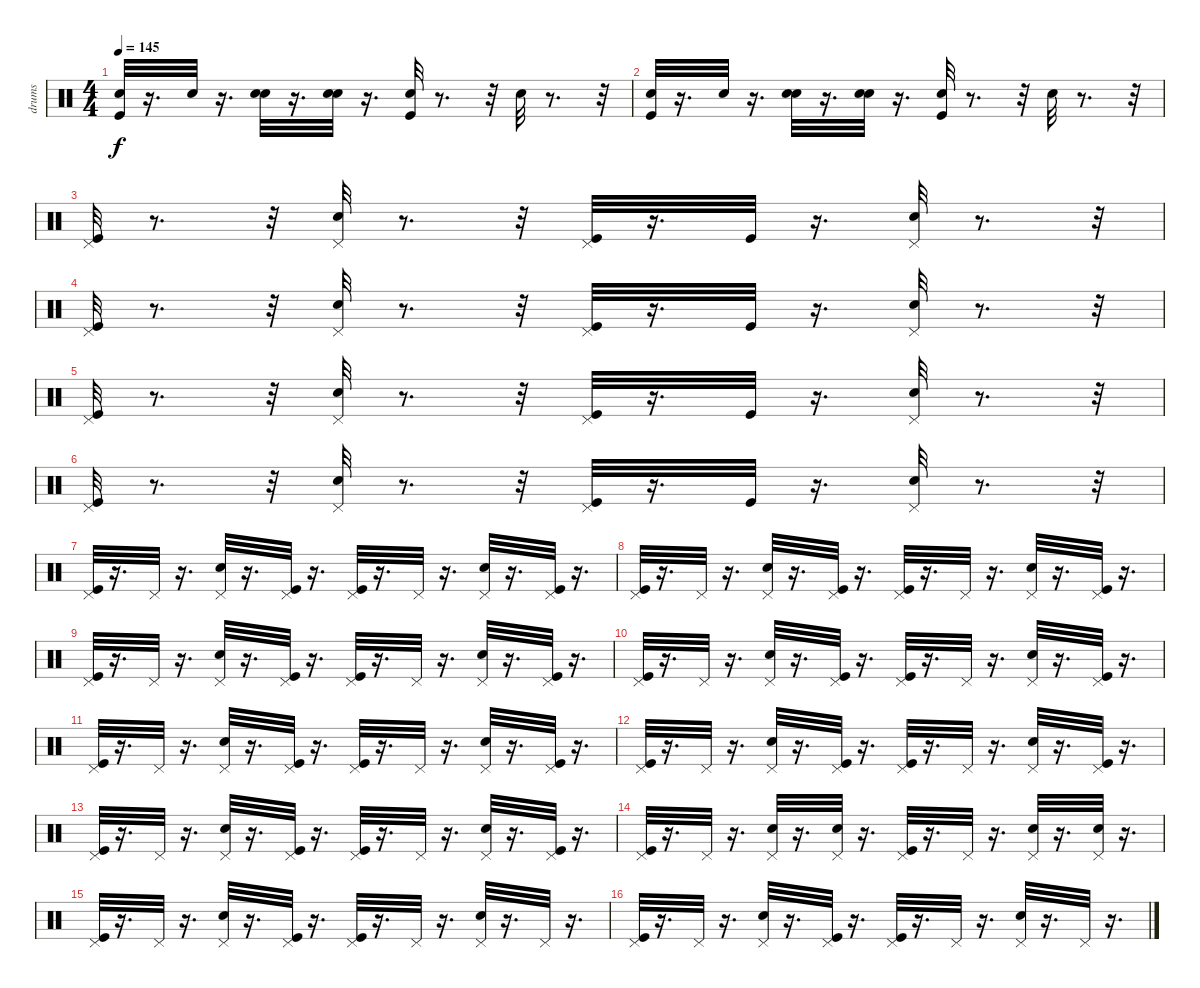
\track ("drums" "drums") {instrument percussion}
\staff {score}
\articulation defaults
\ts (4 4)
\tempo 145
\clef neutral
\ks c
("Hand Clap (hit)" "Kick (hit)").32{dy f} r.16{d} "Hand Clap (hit)".32 r.16{d} ("Hand Clap (hit)" "Electric Snare (hit)").32 r.16{d} ("Hand Clap (hit)" "Electric Snare (hit)").32 r.16{d} ("Hand Clap (hit)" "Kick (hit)").32 r.8{d} r.32 "Electric Snare (hit)".32 r.8{d} r.32 |
("Hand Clap (hit)" "Kick (hit)").32 r.16{d} "Hand Clap (hit)".32 r.16{d} ("Hand Clap (hit)" "Electric Snare (hit)").32 r.16{d} ("Hand Clap (hit)" "Electric Snare (hit)").32 r.16{d} ("Hand Clap (hit)" "Kick (hit)").32 r.8{d} r.32 "Electric Snare (hit)".32 r.8{d} r.32 |
("Pedal Hi-Hat (hit)" "Kick (hit)").32 r.8{d} r.32 ("Pedal Hi-Hat (hit)" "Electric Snare (hit)").32 r.8{d} r.32 ("Pedal Hi-Hat (hit)" "Kick (hit)").32 r.16{d} "Kick (hit)".32 r.16{d} ("Pedal Hi-Hat (hit)" "Electric Snare (hit)").32 r.8{d} r.32 |
("Pedal Hi-Hat (hit)" "Kick (hit)").32 r.8{d} r.32 ("Pedal Hi-Hat (hit)" "Electric Snare (hit)").32 r.8{d} r.32 ("Pedal Hi-Hat (hit)" "Kick (hit)").32 r.16{d} "Kick (hit)".32 r.16{d} ("Pedal Hi-Hat (hit)" "Electric Snare (hit)").32 r.8{d} r.32 |
("Pedal Hi-Hat (hit)" "Kick (hit)").32 r.8{d} r.32 ("Pedal Hi-Hat (hit)" "Electric Snare (hit)").32 r.8{d} r.32 ("Pedal Hi-Hat (hit)" "Kick (hit)").32 r.16{d} "Kick (hit)".32 r.16{d} ("Pedal Hi-Hat (hit)" "Electric Snare (hit)").32 r.8{d} r.32 |
("Pedal Hi-Hat (hit)" "Kick (hit)").32 r.8{d} r.32 ("Pedal Hi-Hat (hit)" "Electric Snare (hit)").32 r.8{d} r.32 ("Pedal Hi-Hat (hit)" "Kick (hit)").32 r.16{d} "Kick (hit)".32 r.16{d} ("Pedal Hi-Hat (hit)" "Electric Snare (hit)").32 r.8{d} r.32 |
("Kick (hit)" "Pedal Hi-Hat (hit)").32 r.16{d} "Pedal Hi-Hat (hit)".32 r.16{d} ("Electric Snare (hit)" "Pedal Hi-Hat (hit)").32 r.16{d} ("Pedal Hi-Hat (hit)" "Kick (hit)").32 r.16{d} ("Pedal Hi-Hat (hit)" "Kick (hit)").32 r.16{d} "Pedal Hi-Hat (hit)".32 r.16{d} ("Pedal Hi-Hat (hit)" "Electric Snare (hit)").32 r.16{d} ("Pedal Hi-Hat (hit)" "Kick (hit)").32 r.16{d} |
("Pedal Hi-Hat (hit)" "Kick (hit)").32 r.16{d} "Pedal Hi-Hat (hit)".32 r.16{d} ("Pedal Hi-Hat (hit)" "Electric Snare (hit)").32 r.16{d} ("Pedal Hi-Hat (hit)" "Kick (hit)").32 r.16{d} ("Pedal Hi-Hat (hit)" "Kick (hit)").32 r.16{d} "Pedal Hi-Hat (hit)".32 r.16{d} ("Pedal Hi-Hat (hit)" "Electric Snare (hit)").32 r.16{d} ("Pedal Hi-Hat (hit)" "Kick (hit)").32 r.16{d} |
("Pedal Hi-Hat (hit)" "Kick (hit)").32 r.16{d} "Pedal Hi-Hat (hit)".32 r.16{d} ("Pedal Hi-Hat (hit)" "Electric Snare (hit)").32 r.16{d} ("Pedal Hi-Hat (hit)" "Kick (hit)").32 r.16{d} ("Pedal Hi-Hat (hit)" "Kick (hit)").32 r.16{d} "Pedal Hi-Hat (hit)".32 r.16{d} ("Pedal Hi-Hat (hit)" "Electric Snare (hit)").32 r.16{d} ("Pedal Hi-Hat (hit)" "Kick (hit)").32 r.16{d} |
("Pedal Hi-Hat (hit)" "Kick (hit)").32 r.16{d} "Pedal Hi-Hat (hit)".32 r.16{d} ("Pedal Hi-Hat (hit)" "Electric Snare (hit)").32 r.16{d} ("Pedal Hi-Hat (hit)" "Kick (hit)").32 r.16{d} ("Pedal Hi-Hat (hit)" "Kick (hit)").32 r.16{d} "Pedal Hi-Hat (hit)".32 r.16{d} ("Pedal Hi-Hat (hit)" "Electric Snare (hit)").32 r.16{d} ("Pedal Hi-Hat (hit)" "Kick (hit)").32 r.16{d} |
("Pedal Hi-Hat (hit)" "Kick (hit)").32 r.16{d} "Pedal Hi-Hat (hit)".32 r.16{d} ("Pedal Hi-Hat (hit)" "Electric Snare (hit)").32 r.16{d} ("Pedal Hi-Hat (hit)" "Kick (hit)").32 r.16{d} ("Pedal Hi-Hat (hit)" "Kick (hit)").32 r.16{d} "Pedal Hi-Hat (hit)".32 r.16{d} ("Pedal Hi-Hat (hit)" "Electric Snare (hit)").32 r.16{d} ("Pedal Hi-Hat (hit)" "Kick (hit)").32 r.16{d} |
("Pedal Hi-Hat (hit)" "Kick (hit)").32 r.16{d} "Pedal Hi-Hat (hit)".32 r.16{d} ("Pedal Hi-Hat (hit)" "Electric Snare (hit)").32 r.16{d} ("Pedal Hi-Hat (hit)" "Kick (hit)").32 r.16{d} ("Pedal Hi-Hat (hit)" "Kick (hit)").32 r.16{d} "Pedal Hi-Hat (hit)".32 r.16{d} ("Pedal Hi-Hat (hit)" "Electric Snare (hit)").32 r.16{d} ("Pedal Hi-Hat (hit)" "Kick (hit)").32 r.16{d} |
("Pedal Hi-Hat (hit)" "Kick (hit)").32 r.16{d} "Pedal Hi-Hat (hit)".32 r.16{d} ("Pedal Hi-Hat (hit)" "Electric Snare (hit)").32 r.16{d} ("Pedal Hi-Hat (hit)" "Kick (hit)").32 r.16{d} ("Pedal Hi-Hat (hit)" "Kick (hit)").32 r.16{d} "Pedal Hi-Hat (hit)".32 r.16{d} ("Pedal Hi-Hat (hit)" "Electric Snare (hit)").32 r.16{d} ("Pedal Hi-Hat (hit)" "Kick (hit)").32 r.16{d} |
("Pedal Hi-Hat (hit)" "Kick (hit)").32 r.16{d} "Pedal Hi-Hat (hit)".32 r.16{d} ("Pedal Hi-Hat (hit)" "Electric Snare (hit)").32 r.16{d} ("Electric Snare (hit)" "Pedal Hi-Hat (hit)").32 r.16{d} ("Pedal Hi-Hat (hit)" "Kick (hit)").32 r.16{d} "Pedal Hi-Hat (hit)".32 r.16{d} ("Electric Snare (hit)" "Pedal Hi-Hat (hit)").32 r.16{d} ("Electric Snare (hit)" "Pedal Hi-Hat (hit)").32 r.16{d} |
("Pedal Hi-Hat (hit)" "Kick (hit)").32 r.16{d} "Pedal Hi-Hat (hit)".32 r.16{d} ("Pedal Hi-Hat (hit)" "Electric Snare (hit)").32 r.16{d} ("Pedal Hi-Hat (hit)" "Kick (hit)").32 r.16{d} ("Pedal Hi-Hat (hit)" "Kick (hit)").32 r.16{d} "Pedal Hi-Hat (hit)".32 r.16{d} ("Pedal Hi-Hat (hit)" "Electric Snare (hit)").32 r.16{d} "Pedal Hi-Hat (hit)".32 r.16{d} |
("Pedal Hi-Hat (hit)" "Kick (hit)").32 r.16{d} "Pedal Hi-Hat (hit)".32 r.16{d} ("Pedal Hi-Hat (hit)" "Electric Snare (hit)").32 r.16{d} ("Pedal Hi-Hat (hit)" "Kick (hit)").32 r.16{d} ("Pedal Hi-Hat (hit)" "Kick (hit)").32 r.16{d} "Pedal Hi-Hat (hit)".32 r.16{d} ("Pedal Hi-Hat (hit)" "Electric Snare (hit)").32 r.16{d} "Pedal Hi-Hat (hit)".32 r.16{d}
